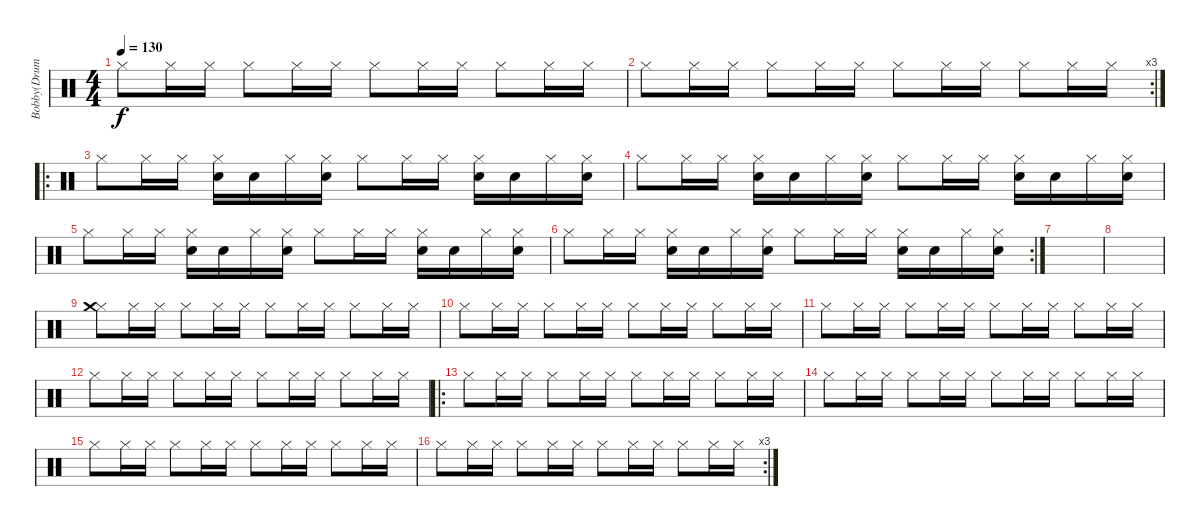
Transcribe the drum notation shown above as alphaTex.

\track ("Bobby(DrumSynth)" "Bobby(Drum") {instrument percussion}
\staff {score}
\articulation defaults
\ts (4 4)
\tempo 130
\clef neutral
\ks c "Hi-Hat (closed)".8{dy f} "Hi-Hat (closed)".16 "Hi-Hat (closed)".16 "Hi-Hat (closed)".8 "Hi-Hat (closed)".16 "Hi-Hat (closed)".16 "Hi-Hat (closed)".8 "Hi-Hat (closed)".16 "Hi-Hat (closed)".16 "Hi-Hat (closed)".8 "Hi-Hat (closed)".16 "Hi-Hat (closed)".16
|
\rc 3 "Hi-Hat (closed)".8 "Hi-Hat (closed)".16 "Hi-Hat (closed)".16 "Hi-Hat (closed)".8 "Hi-Hat (closed)".16 "Hi-Hat (closed)".16 "Hi-Hat (closed)".8 "Hi-Hat (closed)".16 "Hi-Hat (closed)".16 "Hi-Hat (closed)".8 "Hi-Hat (closed)".16 "Hi-Hat (closed)".16
|
\ro "Hi-Hat (closed)".8 "Hi-Hat (closed)".16 "Hi-Hat (closed)".16
("Hi-Hat (closed)" "Hand Clap (hit)").16 "Hand Clap (hit)".16 "Hi-Hat (closed)".16 ("Hi-Hat (closed)" "Hand Clap (hit)").16 "Hi-Hat (closed)".8 "Hi-Hat (closed)".16 "Hi-Hat (closed)".16 ("Hi-Hat (closed)" "Hand Clap (hit)").16 "Hand Clap (hit)".16 "Hi-Hat (closed)".16 ("Hi-Hat (closed)" "Hand Clap (hit)").16 |
"Hi-Hat (closed)".8 "Hi-Hat (closed)".16 "Hi-Hat (closed)".16 ("Hi-Hat (closed)" "Hand Clap (hit)").16 "Hand Clap (hit)".16 "Hi-Hat (closed)".16 ("Hi-Hat (closed)" "Hand Clap (hit)").16 "Hi-Hat (closed)".8 "Hi-Hat (closed)".16 "Hi-Hat (closed)".16 ("Hi-Hat (closed)" "Hand Clap (hit)").16 "Hand Clap (hit)".16 "Hi-Hat (closed)".16 ("Hi-Hat (closed)" "Hand Clap (hit)").16 |
"Hi-Hat (closed)".8 "Hi-Hat (closed)".16 "Hi-Hat (closed)".16 ("Hi-Hat (closed)" "Hand Clap (hit)").16 "Hand Clap (hit)".16 "Hi-Hat (closed)".16 ("Hi-Hat (closed)" "Hand Clap (hit)").16 "Hi-Hat (closed)".8 "Hi-Hat (closed)".16 "Hi-Hat (closed)".16 ("Hi-Hat (closed)" "Hand Clap (hit)").16 "Hand Clap (hit)".16 "Hi-Hat (closed)".16 ("Hi-Hat (closed)" "Hand Clap (hit)").16 |
\rc 2 "Hi-Hat (closed)".8 "Hi-Hat (closed)".16 "Hi-Hat (closed)".16
("Hi-Hat (closed)" "Hand Clap (hit)").16 "Hand Clap (hit)".16 "Hi-Hat (closed)".16 ("Hi-Hat (closed)" "Hand Clap (hit)").16 "Hi-Hat (closed)".8 "Hi-Hat (closed)".16 "Hi-Hat (closed)".16 ("Hi-Hat (closed)" "Hand Clap (hit)").16 "Hand Clap (hit)".16 "Hi-Hat (closed)".16 ("Hi-Hat (closed)" "Hand Clap (hit)").16 |
|
|
("Hi-Hat (closed)" "Crash medium (hit)").8 "Hi-Hat (closed)".16 "Hi-Hat (closed)".16 "Hi-Hat (closed)".8 "Hi-Hat (closed)".16 "Hi-Hat (closed)".16 "Hi-Hat (closed)".8 "Hi-Hat (closed)".16 "Hi-Hat (closed)".16 "Hi-Hat (closed)".8 "Hi-Hat (closed)".16 "Hi-Hat (closed)".16 |
"Hi-Hat (closed)".8 "Hi-Hat (closed)".16 "Hi-Hat (closed)".16 "Hi-Hat (closed)".8 "Hi-Hat (closed)".16 "Hi-Hat (closed)".16 "Hi-Hat (closed)".8 "Hi-Hat (closed)".16 "Hi-Hat (closed)".16 "Hi-Hat (closed)".8 "Hi-Hat (closed)".16 "Hi-Hat (closed)".16 |
"Hi-Hat (closed)".8 "Hi-Hat (closed)".16 "Hi-Hat (closed)".16 "Hi-Hat (closed)".8 "Hi-Hat (closed)".16 "Hi-Hat (closed)".16 "Hi-Hat (closed)".8 "Hi-Hat (closed)".16 "Hi-Hat (closed)".16 "Hi-Hat (closed)".8 "Hi-Hat (closed)".16 "Hi-Hat (closed)".16 |
"Hi-Hat (closed)".8 "Hi-Hat (closed)".16 "Hi-Hat (closed)".16 "Hi-Hat (closed)".8 "Hi-Hat (closed)".16 "Hi-Hat (closed)".16 "Hi-Hat (closed)".8 "Hi-Hat (closed)".16 "Hi-Hat (closed)".16 "Hi-Hat (closed)".8 "Hi-Hat (closed)".16 "Hi-Hat (closed)".16 |
\ro "Hi-Hat (closed)".8 "Hi-Hat (closed)".16 "Hi-Hat (closed)".16 "Hi-Hat (closed)".8 "Hi-Hat (closed)".16 "Hi-Hat (closed)".16 "Hi-Hat (closed)".8 "Hi-Hat (closed)".16 "Hi-Hat (closed)".16 "Hi-Hat (closed)".8 "Hi-Hat (closed)".16 "Hi-Hat (closed)".16
|
"Hi-Hat (closed)".8 "Hi-Hat (closed)".16 "Hi-Hat (closed)".16 "Hi-Hat (closed)".8 "Hi-Hat (closed)".16 "Hi-Hat (closed)".16 "Hi-Hat (closed)".8 "Hi-Hat (closed)".16 "Hi-Hat (closed)".16 "Hi-Hat (closed)".8 "Hi-Hat (closed)".16 "Hi-Hat (closed)".16 |
"Hi-Hat (closed)".8 "Hi-Hat (closed)".16 "Hi-Hat (closed)".16 "Hi-Hat (closed)".8 "Hi-Hat (closed)".16 "Hi-Hat (closed)".16 "Hi-Hat (closed)".8 "Hi-Hat (closed)".16 "Hi-Hat (closed)".16 "Hi-Hat (closed)".8 "Hi-Hat (closed)".16 "Hi-Hat (closed)".16 |
\rc 3 "Hi-Hat (closed)".8 "Hi-Hat (closed)".16 "Hi-Hat (closed)".16 "Hi-Hat (closed)".8 "Hi-Hat (closed)".16 "Hi-Hat (closed)".16 "Hi-Hat (closed)".8 "Hi-Hat (closed)".16 "Hi-Hat (closed)".16 "Hi-Hat (closed)".8 "Hi-Hat (closed)".16 "Hi-Hat (closed)".16
